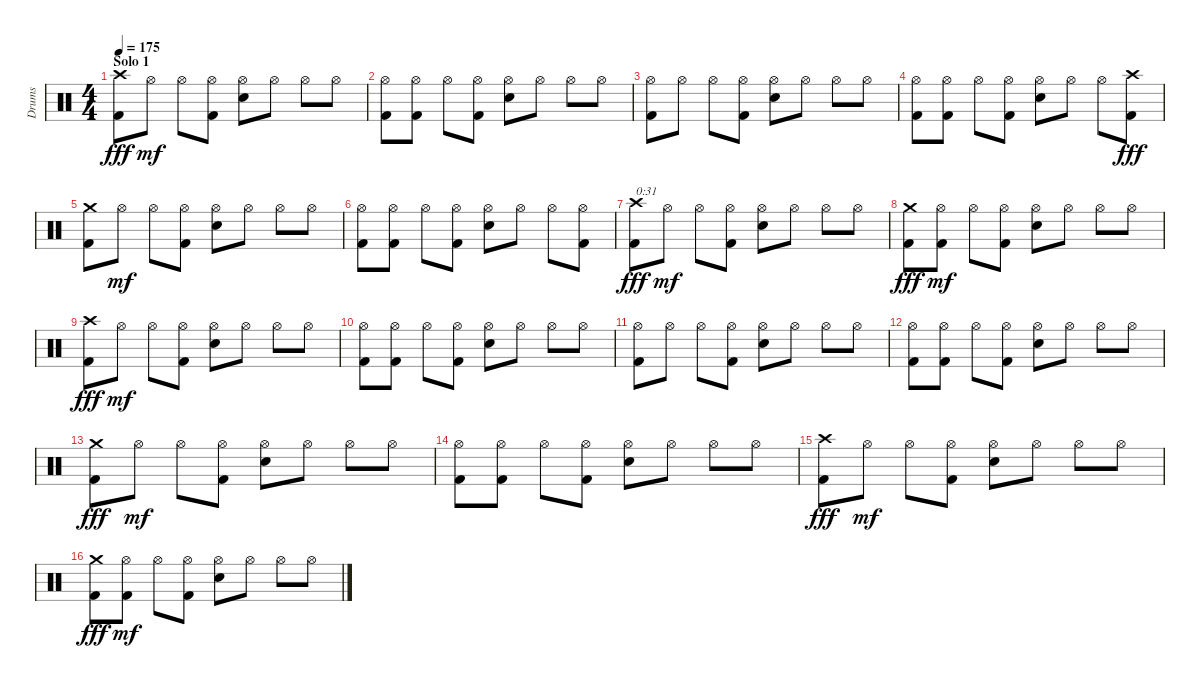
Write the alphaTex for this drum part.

\track ("Drums" "Drums") {instrument percussion}
\staff {score}
\articulation defaults
\ts (4 4)
\section ("" "Solo 1")
\tempo 175
\clef neutral
\ks c
("Kick (hit) 2" "Crash high (hit)").8{dy fff} "Hi-Hat (open)".8{dy mf} "Hi-Hat (open)".8 ("Kick (hit) 2" "Hi-Hat (open)").8 ("Electric Snare (hit)" "Hi-Hat (open)").8 "Hi-Hat (open)".8 "Hi-Hat (open)".8 "Hi-Hat (open)".8 |
("Kick (hit) 2" "Hi-Hat (open)").8 ("Kick (hit) 2" "Hi-Hat (open)").8 "Hi-Hat (open)".8 ("Kick (hit) 2" "Hi-Hat (open)").8 ("Electric Snare (hit)" "Hi-Hat (open)").8 "Hi-Hat (open)".8 "Hi-Hat (open)".8 "Hi-Hat (open)".8 |
("Kick (hit) 2" "Hi-Hat (open)").8 "Hi-Hat (open)".8 "Hi-Hat (open)".8 ("Kick (hit) 2" "Hi-Hat (open)").8 ("Electric Snare (hit)" "Hi-Hat (open)").8 "Hi-Hat (open)".8 "Hi-Hat (open)".8 "Hi-Hat (open)".8 |
("Kick (hit) 2" "Hi-Hat (open)").8 ("Kick (hit) 2" "Hi-Hat (open)").8 "Hi-Hat (open)".8 ("Kick (hit) 2" "Hi-Hat (open)").8 ("Electric Snare (hit)" "Hi-Hat (open)").8 "Hi-Hat (open)".8 "Hi-Hat (open)".8 ("Kick (hit) 2" "Crash high (hit)").8{dy fff} |
("Kick (hit) 2" "Crash medium (hit)").8 "Hi-Hat (open)".8{dy mf} "Hi-Hat (open)".8 ("Kick (hit) 2" "Hi-Hat (open)").8 ("Electric Snare (hit)" "Hi-Hat (open)").8 "Hi-Hat (open)".8 "Hi-Hat (open)".8 "Hi-Hat (open)".8 |
("Kick (hit) 2" "Hi-Hat (open)").8 ("Kick (hit) 2" "Hi-Hat (open)").8 "Hi-Hat (open)".8 ("Kick (hit) 2" "Hi-Hat (open)").8 ("Electric Snare (hit)" "Hi-Hat (open)").8 "Hi-Hat (open)".8 "Hi-Hat (open)".8 ("Kick (hit) 2" "Hi-Hat (open)").8 |
("Kick (hit) 2" "Crash high (hit)").8{txt "0:31" dy fff} "Hi-Hat (open)".8{dy mf} "Hi-Hat (open)".8 ("Kick (hit) 2" "Hi-Hat (open)").8 ("Electric Snare (hit)" "Hi-Hat (open)").8 "Hi-Hat (open)".8 "Hi-Hat (open)".8 "Hi-Hat (open)".8 |
("Kick (hit) 2" "Crash medium (hit)").8{dy fff} ("Kick (hit) 2" "Hi-Hat (open)").8{dy mf} "Hi-Hat (open)".8 ("Kick (hit) 2" "Hi-Hat (open)").8 ("Electric Snare (hit)" "Hi-Hat (open)").8 "Hi-Hat (open)".8 "Hi-Hat (open)".8 "Hi-Hat (open)".8 |
("Kick (hit) 2" "Crash high (hit)").8{dy fff} "Hi-Hat (open)".8{dy mf} "Hi-Hat (open)".8 ("Kick (hit) 2" "Hi-Hat (open)").8 ("Electric Snare (hit)" "Hi-Hat (open)").8 "Hi-Hat (open)".8 "Hi-Hat (open)".8 "Hi-Hat (open)".8 |
("Kick (hit) 2" "Hi-Hat (open)").8 ("Kick (hit) 2" "Hi-Hat (open)").8 "Hi-Hat (open)".8 ("Kick (hit) 2" "Hi-Hat (open)").8 ("Electric Snare (hit)" "Hi-Hat (open)").8 "Hi-Hat (open)".8 "Hi-Hat (open)".8 "Hi-Hat (open)".8 |
("Kick (hit) 2" "Hi-Hat (open)").8 "Hi-Hat (open)".8 "Hi-Hat (open)".8 ("Kick (hit) 2" "Hi-Hat (open)").8 ("Electric Snare (hit)" "Hi-Hat (open)").8 "Hi-Hat (open)".8 "Hi-Hat (open)".8 "Hi-Hat (open)".8 |
("Kick (hit) 2" "Hi-Hat (open)").8 ("Kick (hit) 2" "Hi-Hat (open)").8 "Hi-Hat (open)".8 ("Kick (hit) 2" "Hi-Hat (open)").8 ("Electric Snare (hit)" "Hi-Hat (open)").8 "Hi-Hat (open)".8 "Hi-Hat (open)".8 "Hi-Hat (open)".8 |
("Kick (hit) 2" "Crash medium (hit)").8{dy fff} "Hi-Hat (open)".8{dy mf} "Hi-Hat (open)".8 ("Kick (hit) 2" "Hi-Hat (open)").8 ("Electric Snare (hit)" "Hi-Hat (open)").8 "Hi-Hat (open)".8 "Hi-Hat (open)".8 "Hi-Hat (open)".8 |
("Kick (hit) 2" "Hi-Hat (open)").8 ("Kick (hit) 2" "Hi-Hat (open)").8 "Hi-Hat (open)".8 ("Kick (hit) 2" "Hi-Hat (open)").8 ("Electric Snare (hit)" "Hi-Hat (open)").8 "Hi-Hat (open)".8 "Hi-Hat (open)".8 "Hi-Hat (open)".8 |
("Kick (hit) 2" "Crash high (hit)").8{dy fff} "Hi-Hat (open)".8{dy mf} "Hi-Hat (open)".8 ("Kick (hit) 2" "Hi-Hat (open)").8 ("Electric Snare (hit)" "Hi-Hat (open)").8 "Hi-Hat (open)".8 "Hi-Hat (open)".8 "Hi-Hat (open)".8 |
("Kick (hit) 2" "Crash medium (hit)").8{dy fff} ("Kick (hit) 2" "Hi-Hat (open)").8{dy mf} "Hi-Hat (open)".8 ("Kick (hit) 2" "Hi-Hat (open)").8 ("Electric Snare (hit)" "Hi-Hat (open)").8 "Hi-Hat (open)".8 "Hi-Hat (open)".8 "Hi-Hat (open)".8
